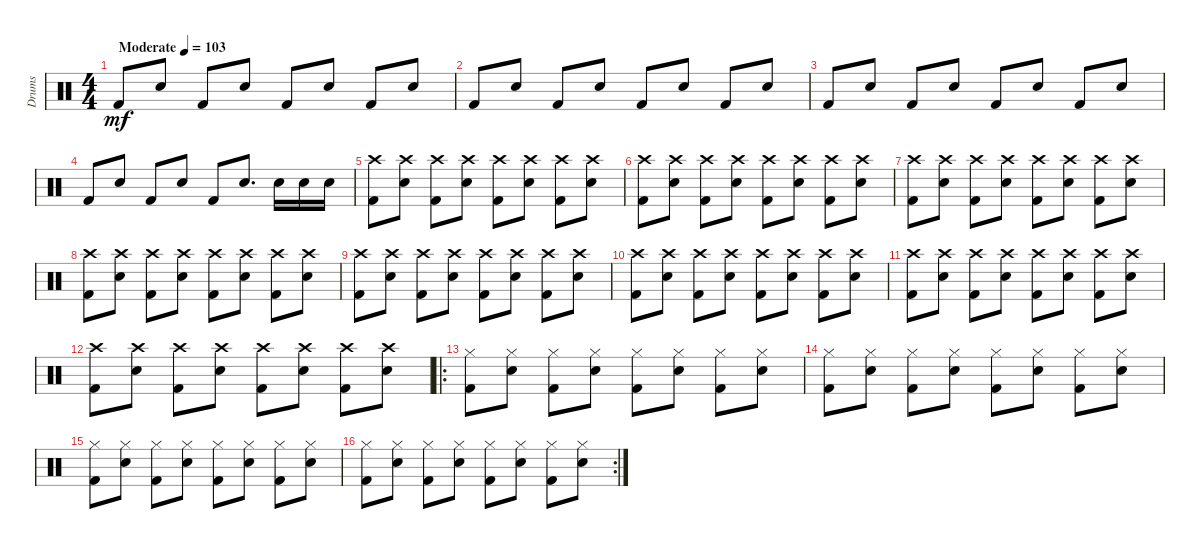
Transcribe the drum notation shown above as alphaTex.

\track ("Drums" "Drums") {instrument percussion}
\staff {score}
\articulation defaults
\ts (4 4)
\tempo (103 "Moderate")
\clef neutral
\ks c "Kick (hit) 2".8{dy mf} "Snare (hit) 2".8 "Kick (hit) 2".8 "Snare (hit) 2".8 "Kick (hit) 2".8 "Snare (hit) 2".8 "Kick (hit) 2".8 "Snare (hit) 2".8
|
"Kick (hit) 2".8 "Snare (hit) 2".8 "Kick (hit) 2".8 "Snare (hit) 2".8 "Kick (hit) 2".8 "Snare (hit) 2".8 "Kick (hit) 2".8 "Snare (hit) 2".8 |
"Kick (hit) 2".8 "Snare (hit) 2".8 "Kick (hit) 2".8 "Snare (hit) 2".8 "Kick (hit) 2".8 "Snare (hit) 2".8 "Kick (hit) 2".8 "Snare (hit) 2".8 |
"Kick (hit) 2".8 "Snare (hit) 2".8 "Kick (hit) 2".8 "Snare (hit) 2".8 "Kick (hit) 2".8 "Snare (hit) 2".8{d} "Snare (hit) 2".16 "Snare (hit) 2".16 "Snare (hit) 2".16 |
("Crash high (hit)" "Kick (hit) 2").8 ("Crash high (hit)" "Snare (hit) 2").8 ("Crash high (hit)" "Kick (hit) 2").8 ("Crash high (hit)" "Snare (hit) 2").8 ("Crash high (hit)" "Kick (hit) 2").8 ("Crash high (hit)" "Snare (hit) 2").8 ("Crash high (hit)" "Kick (hit) 2").8 ("Crash high (hit)" "Snare (hit) 2").8 |
("Crash high (hit)" "Kick (hit) 2").8 ("Crash high (hit)" "Snare (hit) 2").8 ("Crash high (hit)" "Kick (hit) 2").8 ("Crash high (hit)" "Snare (hit) 2").8 ("Crash high (hit)" "Kick (hit) 2").8 ("Crash high (hit)" "Snare (hit) 2").8 ("Crash high (hit)" "Kick (hit) 2").8 ("Crash high (hit)" "Snare (hit) 2").8 |
("Crash high (hit)" "Kick (hit) 2").8 ("Crash high (hit)" "Snare (hit) 2").8 ("Crash high (hit)" "Kick (hit) 2").8 ("Crash high (hit)" "Snare (hit) 2").8 ("Crash high (hit)" "Kick (hit) 2").8 ("Crash high (hit)" "Snare (hit) 2").8 ("Crash high (hit)" "Kick (hit) 2").8 ("Crash high (hit)" "Snare (hit) 2").8 |
("Crash high (hit)" "Kick (hit) 2").8 ("Crash high (hit)" "Snare (hit) 2").8 ("Crash high (hit)" "Kick (hit) 2").8 ("Crash high (hit)" "Snare (hit) 2").8 ("Crash high (hit)" "Kick (hit) 2").8 ("Crash high (hit)" "Snare (hit) 2").8 ("Crash high (hit)" "Kick (hit) 2").8 ("Crash high (hit)" "Snare (hit) 2").8 |
("Crash high (hit)" "Kick (hit) 2").8 ("Crash high (hit)" "Snare (hit) 2").8 ("Crash high (hit)" "Kick (hit) 2").8 ("Crash high (hit)" "Snare (hit) 2").8 ("Crash high (hit)" "Kick (hit) 2").8 ("Crash high (hit)" "Snare (hit) 2").8 ("Crash high (hit)" "Kick (hit) 2").8 ("Crash high (hit)" "Snare (hit) 2").8 |
("Crash high (hit)" "Kick (hit) 2").8 ("Crash high (hit)" "Snare (hit) 2").8 ("Crash high (hit)" "Kick (hit) 2").8 ("Crash high (hit)" "Snare (hit) 2").8 ("Crash high (hit)" "Kick (hit) 2").8 ("Crash high (hit)" "Snare (hit) 2").8 ("Crash high (hit)" "Kick (hit) 2").8 ("Crash high (hit)" "Snare (hit) 2").8 |
("Crash high (hit)" "Kick (hit) 2").8 ("Crash high (hit)" "Snare (hit) 2").8 ("Crash high (hit)" "Kick (hit) 2").8 ("Crash high (hit)" "Snare (hit) 2").8 ("Crash high (hit)" "Kick (hit) 2").8 ("Crash high (hit)" "Snare (hit) 2").8 ("Crash high (hit)" "Kick (hit) 2").8 ("Crash high (hit)" "Snare (hit) 2").8 |
("Crash high (hit)" "Kick (hit) 2").8 ("Crash high (hit)" "Snare (hit) 2").8 ("Crash high (hit)" "Kick (hit) 2").8 ("Crash high (hit)" "Snare (hit) 2").8 ("Crash high (hit)" "Kick (hit) 2").8 ("Crash high (hit)" "Snare (hit) 2").8 ("Crash high (hit)" "Kick (hit) 2").8 ("Crash high (hit)" "Snare (hit) 2").8 |
\ro
("Hi-Hat (closed)" "Kick (hit) 2").8 ("Hi-Hat (closed)" "Snare (hit) 2").8 ("Hi-Hat (closed)" "Kick (hit) 2").8 ("Hi-Hat (closed)" "Snare (hit) 2").8 ("Hi-Hat (closed)" "Kick (hit) 2").8 ("Hi-Hat (closed)" "Snare (hit) 2").8 ("Hi-Hat (closed)" "Kick (hit) 2").8 ("Hi-Hat (closed)" "Snare (hit) 2").8 |
("Hi-Hat (closed)" "Kick (hit) 2").8 ("Hi-Hat (closed)" "Snare (hit) 2").8 ("Hi-Hat (closed)" "Kick (hit) 2").8 ("Hi-Hat (closed)" "Snare (hit) 2").8 ("Hi-Hat (closed)" "Kick (hit) 2").8 ("Hi-Hat (closed)" "Snare (hit) 2").8 ("Hi-Hat (closed)" "Kick (hit) 2").8 ("Hi-Hat (closed)" "Snare (hit) 2").8 |
("Hi-Hat (closed)" "Kick (hit) 2").8 ("Hi-Hat (closed)" "Snare (hit) 2").8 ("Hi-Hat (closed)" "Kick (hit) 2").8 ("Hi-Hat (closed)" "Snare (hit) 2").8 ("Hi-Hat (closed)" "Kick (hit) 2").8 ("Hi-Hat (closed)" "Snare (hit) 2").8 ("Hi-Hat (closed)" "Kick (hit) 2").8 ("Hi-Hat (closed)" "Snare (hit) 2").8 |
\rc 2
("Hi-Hat (closed)" "Kick (hit) 2").8 ("Hi-Hat (closed)" "Snare (hit) 2").8 ("Hi-Hat (closed)" "Kick (hit) 2").8 ("Hi-Hat (closed)" "Snare (hit) 2").8 ("Hi-Hat (closed)" "Kick (hit) 2").8 ("Hi-Hat (closed)" "Snare (hit) 2").8 ("Hi-Hat (closed)" "Kick (hit) 2").8 ("Hi-Hat (closed)" "Snare (hit) 2").8
